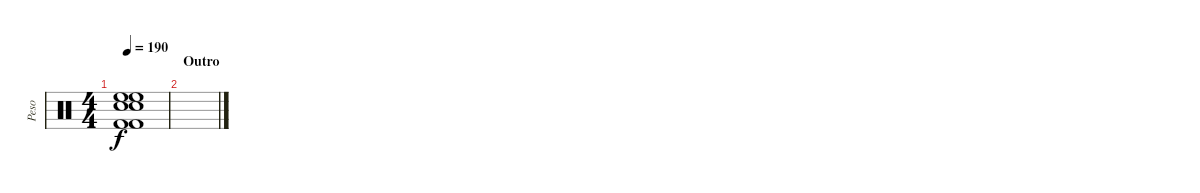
\track ("Peso" "Peso") {instrument percussion}
\staff {score}
\articulation defaults
\ts (4 4)
\tempo 190
\clef neutral
\ks c
("Kick (hit) 2" "High Floor Tom (hit)" "High Floor Tom (hit)" "Snare (hit) 2" "Snare (hit) 2" "Kick (hit) 2").1{dy f} |
\section ("" "Outro")
